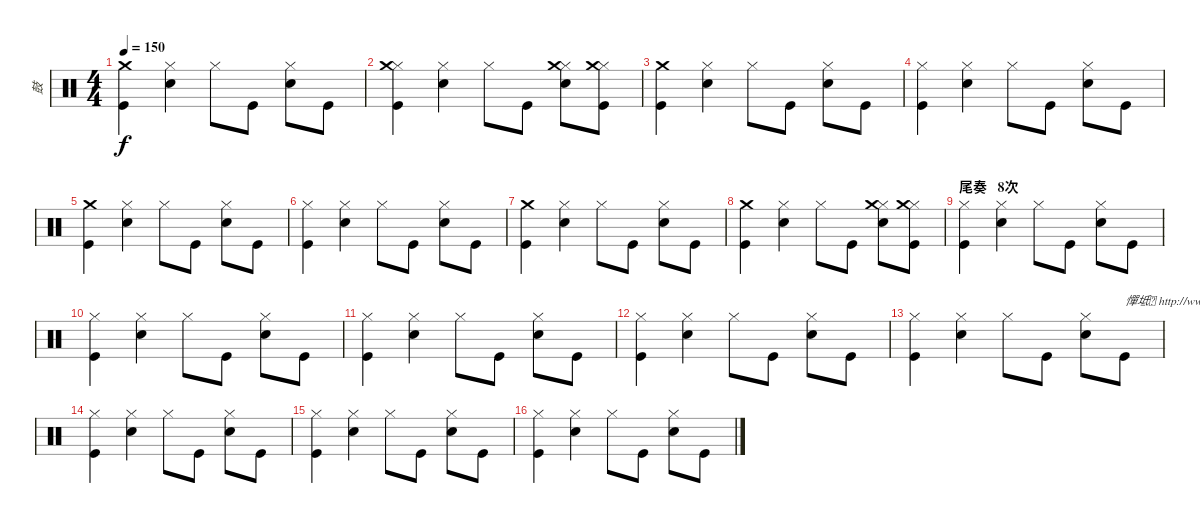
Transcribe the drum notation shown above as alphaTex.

\track ("鼓" "鼓") {instrument percussion}
\staff {score}
\articulation defaults
\ts (4 4)
\tempo 150
\clef neutral
\ks c
("Kick (hit)" "Crash medium (hit)").4{dy f} ("Snare (hit) 2" "Hi-Hat (closed)").4 "Hi-Hat (closed)".8 "Kick (hit)".8 ("Snare (hit) 2" "Hi-Hat (closed)").8 "Kick (hit)".8 |
("Kick (hit)" "Hi-Hat (closed)" "Crash medium (hit)").4 ("Snare (hit) 2" "Hi-Hat (closed)").4 "Hi-Hat (closed)".8 "Kick (hit)".8 ("Snare (hit) 2" "Hi-Hat (closed)" "Crash medium (hit)").8 ("Kick (hit)" "Hi-Hat (closed)" "Crash medium (hit)").8 |
("Kick (hit)" "Crash medium (hit)").4 ("Snare (hit) 2" "Hi-Hat (closed)").4 "Hi-Hat (closed)".8 "Kick (hit)".8 ("Snare (hit) 2" "Hi-Hat (closed)").8 "Kick (hit)".8 |
("Kick (hit)" "Hi-Hat (closed)").4 ("Snare (hit) 2" "Hi-Hat (closed)").4 "Hi-Hat (closed)".8 "Kick (hit)".8 ("Snare (hit) 2" "Hi-Hat (closed)").8 "Kick (hit)".8 |
("Kick (hit)" "Crash medium (hit)").4 ("Snare (hit) 2" "Hi-Hat (closed)").4 "Hi-Hat (closed)".8 "Kick (hit)".8 ("Snare (hit) 2" "Hi-Hat (closed)").8 "Kick (hit)".8 |
("Kick (hit)" "Hi-Hat (closed)").4 ("Snare (hit) 2" "Hi-Hat (closed)").4 "Hi-Hat (closed)".8 "Kick (hit)".8 ("Snare (hit) 2" "Hi-Hat (closed)").8 "Kick (hit)".8 |
("Kick (hit)" "Crash medium (hit)").4 ("Snare (hit) 2" "Hi-Hat (closed)").4 "Hi-Hat (closed)".8 "Kick (hit)".8 ("Snare (hit) 2" "Hi-Hat (closed)").8 "Kick (hit)".8 |
("Kick (hit)" "Crash medium (hit)").4 ("Snare (hit) 2" "Hi-Hat (closed)").4 "Hi-Hat (closed)".8 "Kick (hit)".8 ("Snare (hit) 2" "Hi-Hat (closed)" "Crash medium (hit)").8 ("Kick (hit)" "Hi-Hat (closed)" "Crash medium (hit)").8 |
\section ("" "尾奏   8次")
("Kick (hit)" "Hi-Hat (closed)").4 ("Snare (hit) 2" "Hi-Hat (closed)").4 "Hi-Hat (closed)".8 "Kick (hit)".8 ("Snare (hit) 2" "Hi-Hat (closed)").8 "Kick (hit)".8 |
("Kick (hit)" "Hi-Hat (closed)").4 ("Snare (hit) 2" "Hi-Hat (closed)").4 "Hi-Hat (closed)".8 "Kick (hit)".8 ("Snare (hit) 2" "Hi-Hat (closed)").8 "Kick (hit)".8 |
("Kick (hit)" "Hi-Hat (closed)").4 ("Snare (hit) 2" "Hi-Hat (closed)").4 "Hi-Hat (closed)".8 "Kick (hit)".8 ("Snare (hit) 2" "Hi-Hat (closed)").8 "Kick (hit)".8 |
("Kick (hit)" "Hi-Hat (closed)").4 ("Snare (hit) 2" "Hi-Hat (closed)").4 "Hi-Hat (closed)".8 "Kick (hit)".8 ("Snare (hit) 2" "Hi-Hat (closed)").8 "Kick (hit)".8 |
("Kick (hit)" "Hi-Hat (closed)").4 ("Snare (hit) 2" "Hi-Hat (closed)").4 "Hi-Hat (closed)".8 "Kick (hit)".8 ("Snare (hit) 2" "Hi-Hat (closed)").8 "Kick (hit)".8{txt "憚坻 http://www.jitapu.com"} |
("Kick (hit)" "Hi-Hat (closed)").4 ("Snare (hit) 2" "Hi-Hat (closed)").4 "Hi-Hat (closed)".8 "Kick (hit)".8 ("Snare (hit) 2" "Hi-Hat (closed)").8 "Kick (hit)".8 |
("Kick (hit)" "Hi-Hat (closed)").4 ("Snare (hit) 2" "Hi-Hat (closed)").4 "Hi-Hat (closed)".8 "Kick (hit)".8 ("Snare (hit) 2" "Hi-Hat (closed)").8 "Kick (hit)".8 |
("Kick (hit)" "Hi-Hat (closed)").4 ("Snare (hit) 2" "Hi-Hat (closed)").4 "Hi-Hat (closed)".8 "Kick (hit)".8 ("Snare (hit) 2" "Hi-Hat (closed)").8 "Kick (hit)".8
